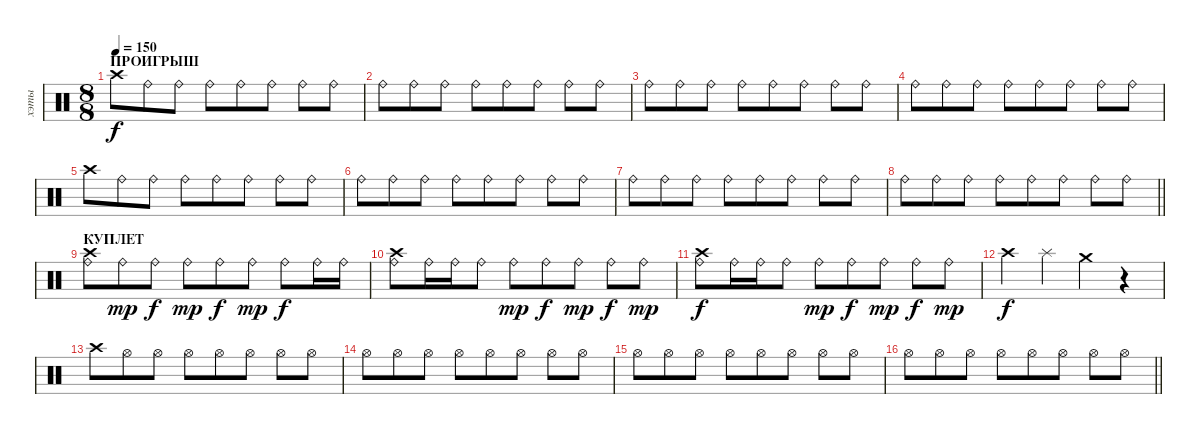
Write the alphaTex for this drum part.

\track ("хэты" "хэты") {instrument percussion}
\staff {score}
\articulation defaults
\ts (8 8)
\section ("" "ПРОИГРЫШ")
\tempo 150
\clef neutral
\ks c "Crash high (hit)".8{dy f} "Ride (bell)".8 "Ride (bell)".8 "Ride (bell)".8 "Ride (bell)".8 "Ride (bell)".8 "Ride (bell)".8 "Ride (bell)".8
|
"Ride (bell)".8 "Ride (bell)".8 "Ride (bell)".8 "Ride (bell)".8 "Ride (bell)".8 "Ride (bell)".8 "Ride (bell)".8 "Ride (bell)".8 |
"Ride (bell)".8 "Ride (bell)".8 "Ride (bell)".8 "Ride (bell)".8 "Ride (bell)".8 "Ride (bell)".8 "Ride (bell)".8 "Ride (bell)".8 |
"Ride (bell)".8 "Ride (bell)".8 "Ride (bell)".8 "Ride (bell)".8 "Ride (bell)".8 "Ride (bell)".8 "Ride (bell)".8 "Ride (bell)".8 |
"Crash high (hit)".8 "Ride (bell)".8 "Ride (bell)".8 "Ride (bell)".8 "Ride (bell)".8 "Ride (bell)".8 "Ride (bell)".8 "Ride (bell)".8 |
"Ride (bell)".8 "Ride (bell)".8 "Ride (bell)".8 "Ride (bell)".8 "Ride (bell)".8 "Ride (bell)".8 "Ride (bell)".8 "Ride (bell)".8 |
"Ride (bell)".8 "Ride (bell)".8 "Ride (bell)".8 "Ride (bell)".8 "Ride (bell)".8 "Ride (bell)".8 "Ride (bell)".8 "Ride (bell)".8 |
\barLineRight lightlight "Ride (bell)".8 "Ride (bell)".8 "Ride (bell)".8 "Ride (bell)".8 "Ride (bell)".8 "Ride (bell)".8 "Ride (bell)".8 "Ride (bell)".8
|
\section ("" "КУПЛЕТ")
("Crash high (hit)" "Ride (bell)").8 "Ride (bell)".8{dy mp} "Ride (bell)".8{dy f} "Ride (bell)".8{dy mp} "Ride (bell)".8{dy f} "Ride (bell)".8{dy mp} "Ride (bell)".8{dy f} "Ride (bell)".16 "Ride (bell)".16 |
("Crash high (hit)" "Ride (bell)").8 "Ride (bell)".16 "Ride (bell)".16 "Ride (bell)".8 "Ride (bell)".8{dy mp} "Ride (bell)".8{dy f} "Ride (bell)".8{dy mp} "Ride (bell)".8{dy f} "Ride (bell)".8{dy mp} |
("Crash high (hit)" "Ride (bell)").8{dy f} "Ride (bell)".16 "Ride (bell)".16 "Ride (bell)".8 "Ride (bell)".8{dy mp} "Ride (bell)".8{dy f} "Ride (bell)".8{dy mp} "Ride (bell)".8{dy f} "Ride (bell)".8{dy mp} |
"Crash high (hit)".4{dy f} "Splash (hit)".4 "Crash medium (hit)".4 r.4 |
"Crash high (hit)".8 "Hi-Hat (open)".8 "Hi-Hat (open)".8 "Hi-Hat (open)".8 "Hi-Hat (open)".8 "Hi-Hat (open)".8 "Hi-Hat (open)".8 "Hi-Hat (open)".8 |
"Hi-Hat (open)".8 "Hi-Hat (open)".8 "Hi-Hat (open)".8 "Hi-Hat (open)".8 "Hi-Hat (open)".8 "Hi-Hat (open)".8 "Hi-Hat (open)".8 "Hi-Hat (open)".8 |
"Hi-Hat (open)".8 "Hi-Hat (open)".8 "Hi-Hat (open)".8 "Hi-Hat (open)".8 "Hi-Hat (open)".8 "Hi-Hat (open)".8 "Hi-Hat (open)".8 "Hi-Hat (open)".8 |
\barLineRight lightlight "Hi-Hat (open)".8 "Hi-Hat (open)".8 "Hi-Hat (open)".8 "Hi-Hat (open)".8 "Hi-Hat (open)".8 "Hi-Hat (open)".8 "Hi-Hat (open)".8 "Hi-Hat (open)".8
